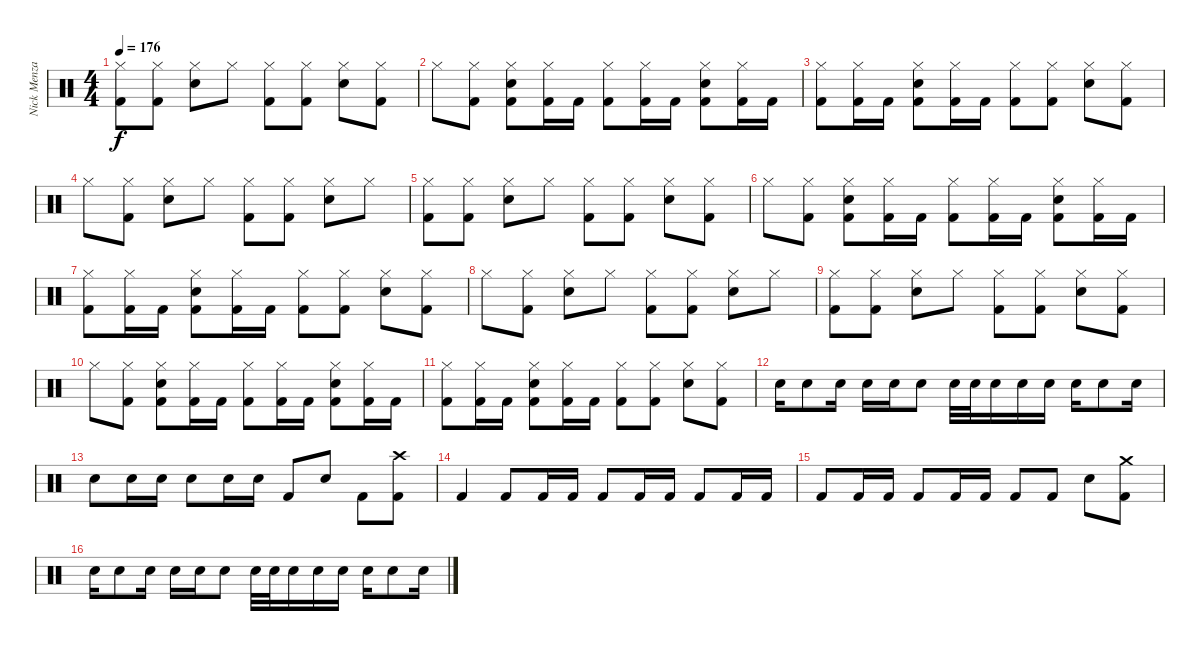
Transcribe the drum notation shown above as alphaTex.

\track ("Nick Menza" "Nick Menza") {instrument percussion}
\staff {score}
\articulation defaults
\ts (4 4)
\tempo 176
\clef neutral
\ks c
("Hi-Hat (closed)" "Kick (hit) 2").8{dy f} ("Hi-Hat (closed)" "Kick (hit) 2").8 ("Hi-Hat (closed)" "Electric Snare (hit)").8 "Hi-Hat (closed)".8 ("Hi-Hat (closed)" "Kick (hit) 2").8 ("Hi-Hat (closed)" "Kick (hit) 2").8 ("Hi-Hat (closed)" "Electric Snare (hit)").8 ("Hi-Hat (closed)" "Kick (hit) 2").8 |
"Hi-Hat (closed)".8 ("Hi-Hat (closed)" "Kick (hit) 2").8 ("Hi-Hat (closed)" "Electric Snare (hit)" "Kick (hit) 2").8 ("Hi-Hat (closed)" "Kick (hit) 2").16 "Kick (hit) 2".16 ("Hi-Hat (closed)" "Kick (hit) 2").8 ("Hi-Hat (closed)" "Kick (hit) 2").16 "Kick (hit) 2".16 ("Hi-Hat (closed)" "Electric Snare (hit)" "Kick (hit) 2").8 ("Hi-Hat (closed)" "Kick (hit) 2").16 "Kick (hit) 2".16 |
("Hi-Hat (closed)" "Kick (hit) 2").8 ("Hi-Hat (closed)" "Kick (hit) 2").16 "Kick (hit) 2".16 ("Hi-Hat (closed)" "Electric Snare (hit)" "Kick (hit) 2").8 ("Hi-Hat (closed)" "Kick (hit) 2").16 "Kick (hit) 2".16 ("Hi-Hat (closed)" "Kick (hit) 2").8 ("Hi-Hat (closed)" "Kick (hit) 2").8 ("Hi-Hat (closed)" "Electric Snare (hit)").8 ("Hi-Hat (closed)" "Kick (hit) 2").8 |
"Hi-Hat (closed)".8 ("Hi-Hat (closed)" "Kick (hit) 2").8 ("Hi-Hat (closed)" "Electric Snare (hit)").8 "Hi-Hat (closed)".8 ("Hi-Hat (closed)" "Kick (hit) 2").8 ("Hi-Hat (closed)" "Kick (hit) 2").8 ("Hi-Hat (closed)" "Electric Snare (hit)").8 "Hi-Hat (closed)".8 |
("Hi-Hat (closed)" "Kick (hit) 2").8 ("Hi-Hat (closed)" "Kick (hit) 2").8 ("Hi-Hat (closed)" "Electric Snare (hit)").8 "Hi-Hat (closed)".8 ("Hi-Hat (closed)" "Kick (hit) 2").8 ("Hi-Hat (closed)" "Kick (hit) 2").8 ("Hi-Hat (closed)" "Electric Snare (hit)").8 ("Hi-Hat (closed)" "Kick (hit) 2").8 |
"Hi-Hat (closed)".8 ("Hi-Hat (closed)" "Kick (hit) 2").8 ("Hi-Hat (closed)" "Electric Snare (hit)" "Kick (hit) 2").8 ("Hi-Hat (closed)" "Kick (hit) 2").16 "Kick (hit) 2".16 ("Hi-Hat (closed)" "Kick (hit) 2").8 ("Hi-Hat (closed)" "Kick (hit) 2").16 "Kick (hit) 2".16 ("Hi-Hat (closed)" "Electric Snare (hit)" "Kick (hit) 2").8 ("Hi-Hat (closed)" "Kick (hit) 2").16 "Kick (hit) 2".16 |
("Hi-Hat (closed)" "Kick (hit) 2").8 ("Hi-Hat (closed)" "Kick (hit) 2").16 "Kick (hit) 2".16 ("Hi-Hat (closed)" "Electric Snare (hit)" "Kick (hit) 2").8 ("Hi-Hat (closed)" "Kick (hit) 2").16 "Kick (hit) 2".16 ("Hi-Hat (closed)" "Kick (hit) 2").8 ("Hi-Hat (closed)" "Kick (hit) 2").8 ("Hi-Hat (closed)" "Electric Snare (hit)").8 ("Hi-Hat (closed)" "Kick (hit) 2").8 |
"Hi-Hat (closed)".8 ("Hi-Hat (closed)" "Kick (hit) 2").8 ("Hi-Hat (closed)" "Electric Snare (hit)").8 "Hi-Hat (closed)".8 ("Hi-Hat (closed)" "Kick (hit) 2").8 ("Hi-Hat (closed)" "Kick (hit) 2").8 ("Hi-Hat (closed)" "Electric Snare (hit)").8 "Hi-Hat (closed)".8 |
("Hi-Hat (closed)" "Kick (hit) 2").8 ("Hi-Hat (closed)" "Kick (hit) 2").8 ("Hi-Hat (closed)" "Electric Snare (hit)").8 "Hi-Hat (closed)".8 ("Hi-Hat (closed)" "Kick (hit) 2").8 ("Hi-Hat (closed)" "Kick (hit) 2").8 ("Hi-Hat (closed)" "Electric Snare (hit)").8 ("Hi-Hat (closed)" "Kick (hit) 2").8 |
"Hi-Hat (closed)".8 ("Hi-Hat (closed)" "Kick (hit) 2").8 ("Hi-Hat (closed)" "Electric Snare (hit)" "Kick (hit) 2").8 ("Hi-Hat (closed)" "Kick (hit) 2").16 "Kick (hit) 2".16 ("Hi-Hat (closed)" "Kick (hit) 2").8 ("Hi-Hat (closed)" "Kick (hit) 2").16 "Kick (hit) 2".16 ("Hi-Hat (closed)" "Electric Snare (hit)" "Kick (hit) 2").8 ("Hi-Hat (closed)" "Kick (hit) 2").16 "Kick (hit) 2".16 |
("Hi-Hat (closed)" "Kick (hit) 2").8 ("Hi-Hat (closed)" "Kick (hit) 2").16 "Kick (hit) 2".16 ("Hi-Hat (closed)" "Electric Snare (hit)" "Kick (hit) 2").8 ("Hi-Hat (closed)" "Kick (hit) 2").16 "Kick (hit) 2".16 ("Hi-Hat (closed)" "Kick (hit) 2").8 ("Hi-Hat (closed)" "Kick (hit) 2").8 ("Hi-Hat (closed)" "Electric Snare (hit)").8 ("Hi-Hat (closed)" "Kick (hit) 2").8 |
"Electric Snare (hit)".16 "Electric Snare (hit)".8 "Electric Snare (hit)".16 "Electric Snare (hit)".16 "Electric Snare (hit)".16 "Electric Snare (hit)".8 "Electric Snare (hit)".32 "Electric Snare (hit)".32 "Electric Snare (hit)".16 "Electric Snare (hit)".16 "Electric Snare (hit)".16 "Electric Snare (hit)".16 "Electric Snare (hit)".8 "Electric Snare (hit)".16 |
"Electric Snare (hit)".8 "Electric Snare (hit)".16 "Electric Snare (hit)".16 "Electric Snare (hit)".8 "Electric Snare (hit)".16 "Electric Snare (hit)".16 "Kick (hit) 2".8 "Electric Snare (hit)".8 "Kick (hit) 2".8 ("Crash high (hit)" "Kick (hit) 2").8 |
"Kick (hit) 2".4 "Kick (hit) 2".8 "Kick (hit) 2".16 "Kick (hit) 2".16 "Kick (hit) 2".8 "Kick (hit) 2".16 "Kick (hit) 2".16 "Kick (hit) 2".8 "Kick (hit) 2".16 "Kick (hit) 2".16 |
"Kick (hit) 2".8 "Kick (hit) 2".16 "Kick (hit) 2".16 "Kick (hit) 2".8 "Kick (hit) 2".16 "Kick (hit) 2".16 "Kick (hit) 2".8 "Kick (hit) 2".8 "Electric Snare (hit)".8 ("Crash medium (hit)" "Kick (hit) 2").8 |
"Electric Snare (hit)".16 "Electric Snare (hit)".8 "Electric Snare (hit)".16 "Electric Snare (hit)".16 "Electric Snare (hit)".16 "Electric Snare (hit)".8 "Electric Snare (hit)".32 "Electric Snare (hit)".32 "Electric Snare (hit)".16 "Electric Snare (hit)".16 "Electric Snare (hit)".16 "Electric Snare (hit)".16 "Electric Snare (hit)".8 "Electric Snare (hit)".16
